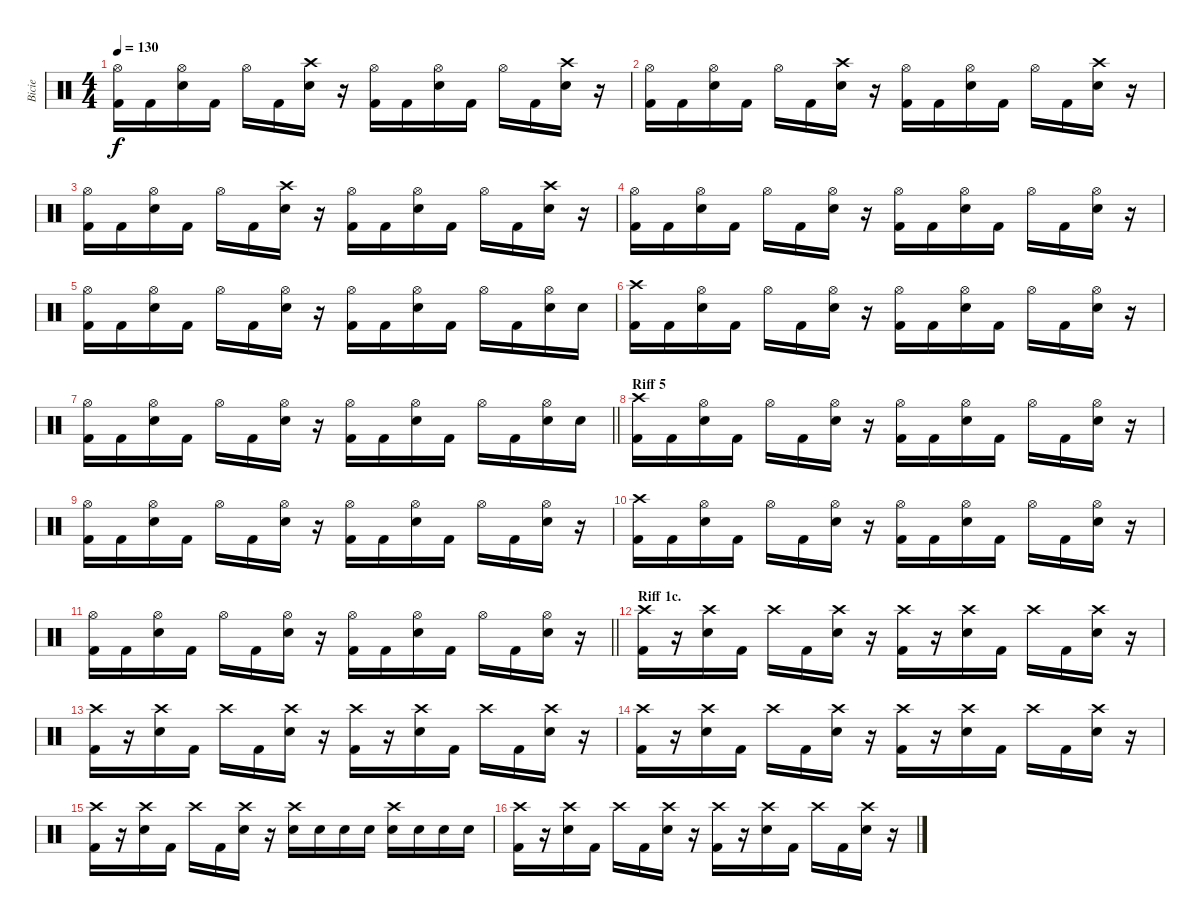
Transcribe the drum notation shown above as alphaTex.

\track ("Bicie" "Bicie") {instrument percussion}
\staff {score}
\articulation defaults
\ts (4 4)
\tempo 130
\clef neutral
\ks c
("Hi-Hat (open)" "Kick (hit) 2").16{dy f} "Kick (hit) 2".16 ("Hi-Hat (open)" "Snare (hit) 2").16 "Kick (hit) 2".16 "Hi-Hat (open)".16 "Kick (hit) 2".16 ("Crash high (hit)" "Snare (hit) 2").16 r.16 ("Hi-Hat (open)" "Kick (hit) 2").16 "Kick (hit) 2".16 ("Hi-Hat (open)" "Snare (hit) 2").16 "Kick (hit) 2".16 "Hi-Hat (open)".16 "Kick (hit) 2".16 ("Crash high (hit)" "Snare (hit) 2").16 r.16 |
("Hi-Hat (open)" "Kick (hit) 2").16 "Kick (hit) 2".16 ("Hi-Hat (open)" "Snare (hit) 2").16 "Kick (hit) 2".16 "Hi-Hat (open)".16 "Kick (hit) 2".16 ("Crash high (hit)" "Snare (hit) 2").16 r.16 ("Hi-Hat (open)" "Kick (hit) 2").16 "Kick (hit) 2".16 ("Hi-Hat (open)" "Snare (hit) 2").16 "Kick (hit) 2".16 "Hi-Hat (open)".16 "Kick (hit) 2".16 ("Crash high (hit)" "Snare (hit) 2").16 r.16 |
("Hi-Hat (open)" "Kick (hit) 2").16 "Kick (hit) 2".16 ("Hi-Hat (open)" "Snare (hit) 2").16 "Kick (hit) 2".16 "Hi-Hat (open)".16 "Kick (hit) 2".16 ("Crash high (hit)" "Snare (hit) 2").16 r.16 ("Hi-Hat (open)" "Kick (hit) 2").16 "Kick (hit) 2".16 ("Hi-Hat (open)" "Snare (hit) 2").16 "Kick (hit) 2".16 "Hi-Hat (open)".16 "Kick (hit) 2".16 ("Crash high (hit)" "Snare (hit) 2").16 r.16 |
("Hi-Hat (open)" "Kick (hit) 2").16 "Kick (hit) 2".16 ("Hi-Hat (open)" "Snare (hit) 2").16 "Kick (hit) 2".16 "Hi-Hat (open)".16 "Kick (hit) 2".16 ("Hi-Hat (open)" "Snare (hit) 2").16 r.16 ("Hi-Hat (open)" "Kick (hit) 2").16 "Kick (hit) 2".16 ("Hi-Hat (open)" "Snare (hit) 2").16 "Kick (hit) 2".16 "Hi-Hat (open)".16 "Kick (hit) 2".16 ("Hi-Hat (open)" "Snare (hit) 2").16 r.16 |
("Hi-Hat (open)" "Kick (hit) 2").16 "Kick (hit) 2".16 ("Hi-Hat (open)" "Snare (hit) 2").16 "Kick (hit) 2".16 "Hi-Hat (open)".16 "Kick (hit) 2".16 ("Hi-Hat (open)" "Snare (hit) 2").16 r.16 ("Hi-Hat (open)" "Kick (hit) 2").16 "Kick (hit) 2".16 ("Hi-Hat (open)" "Snare (hit) 2").16 "Kick (hit) 2".16 "Hi-Hat (open)".16 "Kick (hit) 2".16 ("Hi-Hat (open)" "Snare (hit) 2").16 "Snare (hit) 2".16 |
("Crash high (hit)" "Kick (hit) 2").16 "Kick (hit) 2".16 ("Hi-Hat (open)" "Snare (hit) 2").16 "Kick (hit) 2".16 "Hi-Hat (open)".16 "Kick (hit) 2".16 ("Hi-Hat (open)" "Snare (hit) 2").16 r.16 ("Hi-Hat (open)" "Kick (hit) 2").16 "Kick (hit) 2".16 ("Hi-Hat (open)" "Snare (hit) 2").16 "Kick (hit) 2".16 "Hi-Hat (open)".16 "Kick (hit) 2".16 ("Hi-Hat (open)" "Snare (hit) 2").16 r.16 |
\barLineRight lightlight
("Hi-Hat (open)" "Kick (hit) 2").16 "Kick (hit) 2".16 ("Hi-Hat (open)" "Snare (hit) 2").16 "Kick (hit) 2".16 "Hi-Hat (open)".16 "Kick (hit) 2".16 ("Hi-Hat (open)" "Snare (hit) 2").16 r.16 ("Hi-Hat (open)" "Kick (hit) 2").16 "Kick (hit) 2".16 ("Hi-Hat (open)" "Snare (hit) 2").16 "Kick (hit) 2".16 "Hi-Hat (open)".16 "Kick (hit) 2".16 ("Hi-Hat (open)" "Snare (hit) 2").16 "Snare (hit) 2".16 |
\section ("" "Riff 5")
("Crash high (hit)" "Kick (hit) 2").16 "Kick (hit) 2".16 ("Hi-Hat (open)" "Snare (hit) 2").16 "Kick (hit) 2".16 "Hi-Hat (open)".16 "Kick (hit) 2".16 ("Hi-Hat (open)" "Snare (hit) 2").16 r.16 ("Hi-Hat (open)" "Kick (hit) 2").16 "Kick (hit) 2".16 ("Hi-Hat (open)" "Snare (hit) 2").16 "Kick (hit) 2".16 "Hi-Hat (open)".16 "Kick (hit) 2".16 ("Hi-Hat (open)" "Snare (hit) 2").16 r.16 |
("Hi-Hat (open)" "Kick (hit) 2").16 "Kick (hit) 2".16 ("Hi-Hat (open)" "Snare (hit) 2").16 "Kick (hit) 2".16 "Hi-Hat (open)".16 "Kick (hit) 2".16 ("Hi-Hat (open)" "Snare (hit) 2").16 r.16 ("Hi-Hat (open)" "Kick (hit) 2").16 "Kick (hit) 2".16 ("Hi-Hat (open)" "Snare (hit) 2").16 "Kick (hit) 2".16 "Hi-Hat (open)".16 "Kick (hit) 2".16 ("Hi-Hat (open)" "Snare (hit) 2").16 r.16 |
("Crash high (hit)" "Kick (hit) 2").16 "Kick (hit) 2".16 ("Hi-Hat (open)" "Snare (hit) 2").16 "Kick (hit) 2".16 "Hi-Hat (open)".16 "Kick (hit) 2".16 ("Hi-Hat (open)" "Snare (hit) 2").16 r.16 ("Hi-Hat (open)" "Kick (hit) 2").16 "Kick (hit) 2".16 ("Hi-Hat (open)" "Snare (hit) 2").16 "Kick (hit) 2".16 "Hi-Hat (open)".16 "Kick (hit) 2".16 ("Hi-Hat (open)" "Snare (hit) 2").16 r.16 |
\barLineRight lightlight
("Hi-Hat (open)" "Kick (hit) 2").16 "Kick (hit) 2".16 ("Hi-Hat (open)" "Snare (hit) 2").16 "Kick (hit) 2".16 "Hi-Hat (open)".16 "Kick (hit) 2".16 ("Hi-Hat (open)" "Snare (hit) 2").16 r.16 ("Hi-Hat (open)" "Kick (hit) 2").16 "Kick (hit) 2".16 ("Hi-Hat (open)" "Snare (hit) 2").16 "Kick (hit) 2".16 "Hi-Hat (open)".16 "Kick (hit) 2".16 ("Hi-Hat (open)" "Snare (hit) 2").16 r.16 |
\section ("" "Riff 1c.")
("Crash high (hit)" "Kick (hit) 2").16 r.16 ("Crash high (hit)" "Snare (hit) 2").16 "Kick (hit) 2".16 "Crash high (hit)".16 "Kick (hit) 2".16 ("Crash high (hit)" "Snare (hit) 2").16 r.16 ("Crash high (hit)" "Kick (hit) 2").16 r.16 ("Crash high (hit)" "Snare (hit) 2").16 "Kick (hit) 2".16 "Crash high (hit)".16 "Kick (hit) 2".16 ("Crash high (hit)" "Snare (hit) 2").16 r.16 |
("Crash high (hit)" "Kick (hit) 2").16 r.16 ("Crash high (hit)" "Snare (hit) 2").16 "Kick (hit) 2".16 "Crash high (hit)".16 "Kick (hit) 2".16 ("Crash high (hit)" "Snare (hit) 2").16 r.16 ("Crash high (hit)" "Kick (hit) 2").16 r.16 ("Crash high (hit)" "Snare (hit) 2").16 "Kick (hit) 2".16 "Crash high (hit)".16 "Kick (hit) 2".16 ("Crash high (hit)" "Snare (hit) 2").16 r.16 |
("Crash high (hit)" "Kick (hit) 2").16 r.16 ("Crash high (hit)" "Snare (hit) 2").16 "Kick (hit) 2".16 "Crash high (hit)".16 "Kick (hit) 2".16 ("Crash high (hit)" "Snare (hit) 2").16 r.16 ("Crash high (hit)" "Kick (hit) 2").16 r.16 ("Crash high (hit)" "Snare (hit) 2").16 "Kick (hit) 2".16 "Crash high (hit)".16 "Kick (hit) 2".16 ("Crash high (hit)" "Snare (hit) 2").16 r.16 |
("Crash high (hit)" "Kick (hit) 2").16 r.16 ("Crash high (hit)" "Snare (hit) 2").16 "Kick (hit) 2".16 "Crash high (hit)".16 "Kick (hit) 2".16 ("Crash high (hit)" "Snare (hit) 2").16 r.16 ("Crash high (hit)" "Snare (hit) 2").16 "Snare (hit) 2".16 "Snare (hit) 2".16 "Snare (hit) 2".16 ("Crash high (hit)" "Snare (hit) 2").16 "Snare (hit) 2".16 "Snare (hit) 2".16 "Snare (hit) 2".16 |
("Crash high (hit)" "Kick (hit) 2").16 r.16 ("Crash high (hit)" "Snare (hit) 2").16 "Kick (hit) 2".16 "Crash high (hit)".16 "Kick (hit) 2".16 ("Crash high (hit)" "Snare (hit) 2").16 r.16 ("Crash high (hit)" "Kick (hit) 2").16 r.16 ("Crash high (hit)" "Snare (hit) 2").16 "Kick (hit) 2".16 "Crash high (hit)".16 "Kick (hit) 2".16 ("Crash high (hit)" "Snare (hit) 2").16 r.16
